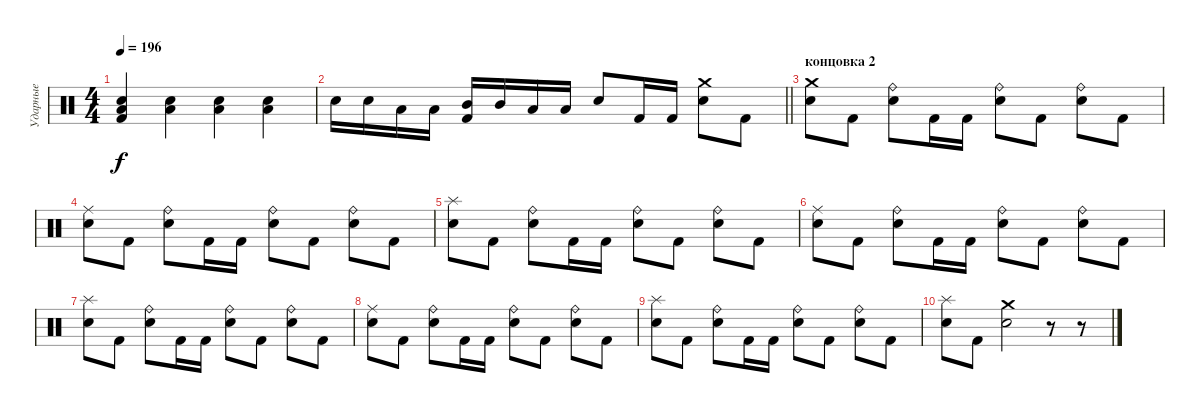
\track ("Ударные" "Ударные") {instrument percussion}
\staff {score}
\articulation defaults
\ts (4 4)
\tempo 196
\clef neutral
\ks c
("Low Floor Tom (hit)" "Snare (hit) 2" "Kick (hit) 2").4{dy f} ("Low Floor Tom (hit)" "Snare (hit) 2").4 ("Low Floor Tom (hit)" "Snare (hit) 2").4 ("Low Floor Tom (hit)" "Snare (hit) 2").4 |
\barLineRight lightlight "Snare (hit) 2".16 "Snare (hit) 2".16 "Low Tom (hit)".16 "Low Tom (hit)".16
("Mid Tom (hit)" "Kick (hit) 2").16 "Mid Tom (hit)".16 "Low Tom (hit)".16 "Low Tom (hit)".16 "Snare (hit) 2".8 "Kick (hit) 2".16 "Kick (hit) 2".16 ("Crash medium (hit)" "Snare (hit) 2").8 "Kick (hit) 2".8 |
\section ("" "концовка 2")
("Crash medium (hit)" "Snare (hit) 2").8 "Kick (hit) 2".8 ("Ride (bell)" "Snare (hit) 2").8 "Kick (hit) 2".16 "Kick (hit) 2".16 ("Ride (bell)" "Snare (hit) 2").8 "Kick (hit) 2".8 ("Ride (bell)" "Snare (hit) 2").8 "Kick (hit) 2".8 |
("Ride (middle)" "Snare (hit) 2").8 "Kick (hit) 2".8 ("Ride (bell)" "Snare (hit) 2").8 "Kick (hit) 2".16 "Kick (hit) 2".16 ("Ride (bell)" "Snare (hit) 2").8 "Kick (hit) 2".8 ("Ride (bell)" "Snare (hit) 2").8 "Kick (hit) 2".8 |
("Splash (hit)" "Snare (hit) 2").8 "Kick (hit) 2".8 ("Ride (bell)" "Snare (hit) 2").8 "Kick (hit) 2".16 "Kick (hit) 2".16 ("Ride (bell)" "Snare (hit) 2").8 "Kick (hit) 2".8 ("Ride (bell)" "Snare (hit) 2").8 "Kick (hit) 2".8 |
("Ride (middle)" "Snare (hit) 2").8 "Kick (hit) 2".8 ("Ride (bell)" "Snare (hit) 2").8 "Kick (hit) 2".16 "Kick (hit) 2".16 ("Ride (bell)" "Snare (hit) 2").8 "Kick (hit) 2".8 ("Ride (bell)" "Snare (hit) 2").8 "Kick (hit) 2".8 |
("Splash (hit)" "Snare (hit) 2").8 "Kick (hit) 2".8 ("Ride (bell)" "Snare (hit) 2").8 "Kick (hit) 2".16 "Kick (hit) 2".16 ("Ride (bell)" "Snare (hit) 2").8 "Kick (hit) 2".8 ("Ride (bell)" "Snare (hit) 2").8 "Kick (hit) 2".8 |
("Ride (middle)" "Snare (hit) 2").8 "Kick (hit) 2".8 ("Ride (bell)" "Snare (hit) 2").8 "Kick (hit) 2".16 "Kick (hit) 2".16 ("Ride (bell)" "Snare (hit) 2").8 "Kick (hit) 2".8 ("Ride (bell)" "Snare (hit) 2").8 "Kick (hit) 2".8 |
("Splash (hit)" "Snare (hit) 2").8 "Kick (hit) 2".8 ("Ride (bell)" "Snare (hit) 2").8 "Kick (hit) 2".16 "Kick (hit) 2".16 ("Ride (bell)" "Snare (hit) 2").8 "Kick (hit) 2".8 ("Ride (bell)" "Snare (hit) 2").8 "Kick (hit) 2".8 |
("Splash (hit)" "Snare (hit) 2").8 "Kick (hit) 2".8 ("Crash medium (hit)" "Snare (hit) 2").2 r.8 r.8
